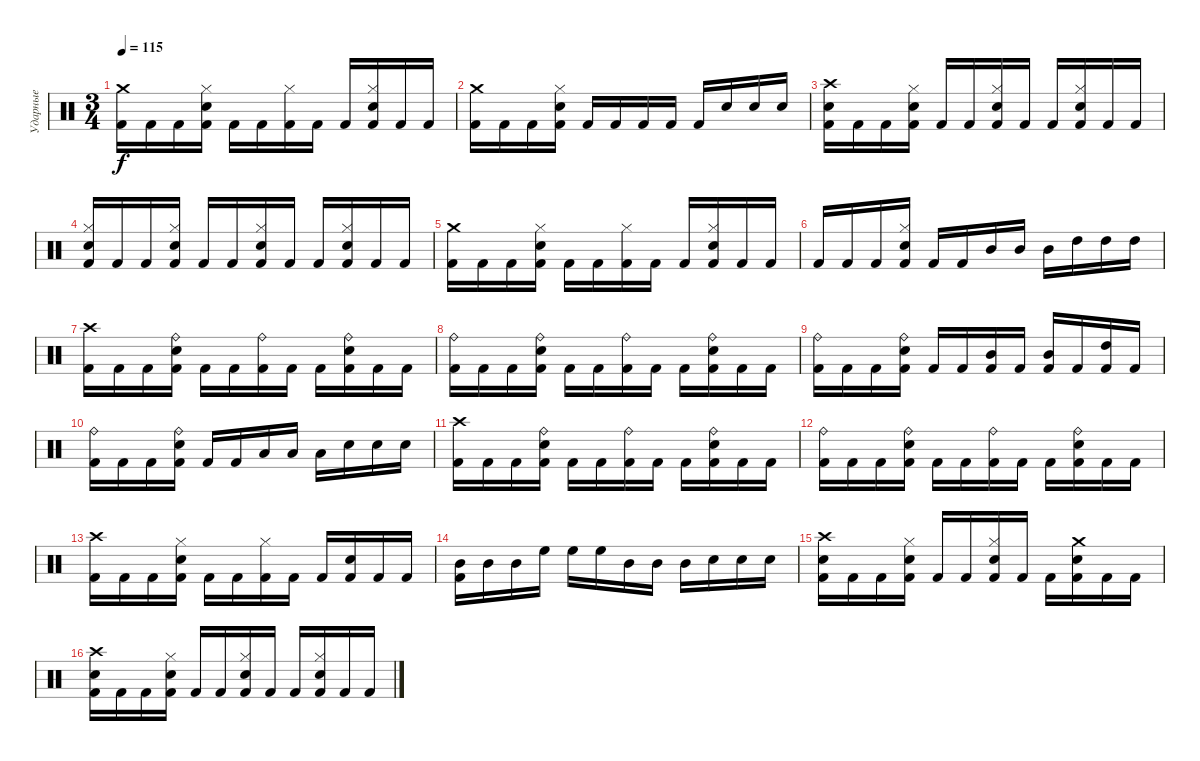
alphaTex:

\track ("Ударные" "Ударные") {instrument percussion}
\staff {score}
\articulation defaults
\ts (3 4)
\tempo 115
\clef neutral
\ks c
("Crash medium (hit)" "Kick (hit) 2").16{dy f} "Kick (hit) 2".16 "Kick (hit) 2".16 ("Hi-Hat (closed)" "Electric Snare (hit)" "Kick (hit) 2").16 "Kick (hit) 2".16 "Kick (hit) 2".16 ("Hi-Hat (closed)" "Kick (hit) 2").16 "Kick (hit) 2".16 "Kick (hit) 2".16 ("Hi-Hat (closed)" "Electric Snare (hit)" "Kick (hit) 2").16 "Kick (hit) 2".16 "Kick (hit) 2".16 |
("Crash medium (hit)" "Kick (hit) 2").16 "Kick (hit) 2".16 "Kick (hit) 2".16 ("Hi-Hat (closed)" "Electric Snare (hit)" "Kick (hit) 2").16 "Kick (hit) 2".16 "Kick (hit) 2".16 "Kick (hit) 2".16 "Kick (hit) 2".16 "Kick (hit) 2".16 "Electric Snare (hit)".16 "Electric Snare (hit)".16 "Electric Snare (hit)".16 |
("Crash high (hit)" "Electric Snare (hit)" "Kick (hit) 2").16 "Kick (hit) 2".16 "Kick (hit) 2".16 ("Hi-Hat (closed)" "Electric Snare (hit)" "Kick (hit) 2").16 "Kick (hit) 2".16 "Kick (hit) 2".16 ("Hi-Hat (closed)" "Electric Snare (hit)" "Kick (hit) 2").16 "Kick (hit) 2".16 "Kick (hit) 2".16 ("Hi-Hat (closed)" "Electric Snare (hit)" "Kick (hit) 2").16 "Kick (hit) 2".16 "Kick (hit) 2".16 |
("Hi-Hat (closed)" "Electric Snare (hit)" "Kick (hit) 2").16 "Kick (hit) 2".16 "Kick (hit) 2".16 ("Hi-Hat (closed)" "Electric Snare (hit)" "Kick (hit) 2").16 "Kick (hit) 2".16 "Kick (hit) 2".16 ("Hi-Hat (closed)" "Electric Snare (hit)" "Kick (hit) 2").16 "Kick (hit) 2".16 "Kick (hit) 2".16 ("Hi-Hat (closed)" "Electric Snare (hit)" "Kick (hit) 2").16 "Kick (hit) 2".16 "Kick (hit) 2".16 |
("Crash medium (hit)" "Kick (hit) 2").16 "Kick (hit) 2".16 "Kick (hit) 2".16 ("Hi-Hat (closed)" "Electric Snare (hit)" "Kick (hit) 2").16 "Kick (hit) 2".16 "Kick (hit) 2".16 ("Hi-Hat (closed)" "Kick (hit) 2").16 "Kick (hit) 2".16 "Kick (hit) 2".16 ("Hi-Hat (closed)" "Electric Snare (hit)" "Kick (hit) 2").16 "Kick (hit) 2".16 "Kick (hit) 2".16 |
"Kick (hit) 2".16 "Kick (hit) 2".16 "Kick (hit) 2".16 ("Hi-Hat (closed)" "Electric Snare (hit)" "Kick (hit) 2").16 "Kick (hit) 2".16 "Kick (hit) 2".16 "Mid Tom (hit)".16 "Mid Tom (hit)".16 "Mid Tom (hit)".16 "High Tom (hit)".16 "High Tom (hit)".16 "High Tom (hit)".16 |
("Crash high (hit)" "Kick (hit) 2").16 "Kick (hit) 2".16 "Kick (hit) 2".16 ("Ride (bell)" "Electric Snare (hit)" "Kick (hit) 2").16 "Kick (hit) 2".16 "Kick (hit) 2".16 ("Ride (bell)" "Kick (hit) 2").16 "Kick (hit) 2".16 "Kick (hit) 2".16 ("Ride (bell)" "Electric Snare (hit)" "Kick (hit) 2").16 "Kick (hit) 2".16 "Kick (hit) 2".16 |
("Ride (bell)" "Kick (hit) 2").16 "Kick (hit) 2".16 "Kick (hit) 2".16 ("Ride (bell)" "Electric Snare (hit)" "Kick (hit) 2").16 "Kick (hit) 2".16 "Kick (hit) 2".16 ("Ride (bell)" "Kick (hit) 2").16 "Kick (hit) 2".16 "Kick (hit) 2".16 ("Ride (bell)" "Electric Snare (hit)" "Kick (hit) 2").16 "Kick (hit) 2".16 "Kick (hit) 2".16 |
("Ride (bell)" "Kick (hit) 2").16 "Kick (hit) 2".16 "Kick (hit) 2".16 ("Ride (bell)" "Electric Snare (hit)" "Kick (hit) 2").16 "Kick (hit) 2".16 "Kick (hit) 2".16 ("Mid Tom (hit)" "Kick (hit) 2").16 "Kick (hit) 2".16 ("Mid Tom (hit)" "Kick (hit) 2").16 "Kick (hit) 2".16 ("High Tom (hit)" "Kick (hit) 2").16 "Kick (hit) 2".16 |
("Ride (bell)" "Kick (hit) 2").16 "Kick (hit) 2".16 "Kick (hit) 2".16 ("Ride (bell)" "Electric Snare (hit)" "Kick (hit) 2").16 "Kick (hit) 2".16 "Kick (hit) 2".16 "Low Tom (hit)".16 "Low Tom (hit)".16 "Low Tom (hit)".16 "Electric Snare (hit)".16 "Electric Snare (hit)".16 "Electric Snare (hit)".16 |
("Crash high (hit)" "Kick (hit) 2").16 "Kick (hit) 2".16 "Kick (hit) 2".16 ("Ride (bell)" "Electric Snare (hit)" "Kick (hit) 2").16 "Kick (hit) 2".16 "Kick (hit) 2".16 ("Ride (bell)" "Kick (hit) 2").16 "Kick (hit) 2".16 "Kick (hit) 2".16 ("Ride (bell)" "Electric Snare (hit)" "Kick (hit) 2").16 "Kick (hit) 2".16 "Kick (hit) 2".16 |
("Ride (bell)" "Kick (hit) 2").16 "Kick (hit) 2".16 "Kick (hit) 2".16 ("Ride (bell)" "Electric Snare (hit)" "Kick (hit) 2").16 "Kick (hit) 2".16 "Kick (hit) 2".16 ("Ride (bell)" "Kick (hit) 2").16 "Kick (hit) 2".16 "Kick (hit) 2".16 ("Ride (bell)" "Electric Snare (hit)" "Kick (hit) 2").16 "Kick (hit) 2".16 "Kick (hit) 2".16 |
("Crash high (hit)" "Kick (hit) 2").16 "Kick (hit) 2".16 "Kick (hit) 2".16 ("Hi-Hat (closed)" "Electric Snare (hit)" "Kick (hit) 2").16 "Kick (hit) 2".16 "Kick (hit) 2".16 ("Hi-Hat (closed)" "Kick (hit) 2").16 "Kick (hit) 2".16 "Kick (hit) 2".16 ("Electric Snare (hit)" "Kick (hit) 2").16 "Kick (hit) 2".16 "Kick (hit) 2".16 |
("Mid Tom (hit)" "Kick (hit) 2").16 "Mid Tom (hit)".16 "Mid Tom (hit)".16 "High Floor Tom (hit)".16 "High Floor Tom (hit)".16 "High Floor Tom (hit)".16 "Mid Tom (hit)".16 "Mid Tom (hit)".16 "Mid Tom (hit)".16 "Electric Snare (hit)".16 "Electric Snare (hit)".16 "Electric Snare (hit)".16 |
("Crash high (hit)" "Electric Snare (hit)" "Kick (hit) 2").16 "Kick (hit) 2".16 "Kick (hit) 2".16 ("Hi-Hat (closed)" "Electric Snare (hit)" "Kick (hit) 2").16 "Kick (hit) 2".16 "Kick (hit) 2".16 ("Hi-Hat (closed)" "Electric Snare (hit)" "Kick (hit) 2").16 "Kick (hit) 2".16 "Kick (hit) 2".16 ("Crash medium (hit)" "Electric Snare (hit)" "Kick (hit) 2").16 "Kick (hit) 2".16 "Kick (hit) 2".16 |
("Crash high (hit)" "Electric Snare (hit)" "Kick (hit) 2").16 "Kick (hit) 2".16 "Kick (hit) 2".16 ("Hi-Hat (closed)" "Electric Snare (hit)" "Kick (hit) 2").16 "Kick (hit) 2".16 "Kick (hit) 2".16 ("Hi-Hat (closed)" "Electric Snare (hit)" "Kick (hit) 2").16 "Kick (hit) 2".16 "Kick (hit) 2".16 ("Hi-Hat (closed)" "Electric Snare (hit)" "Kick (hit) 2").16 "Kick (hit) 2".16 "Kick (hit) 2".16
